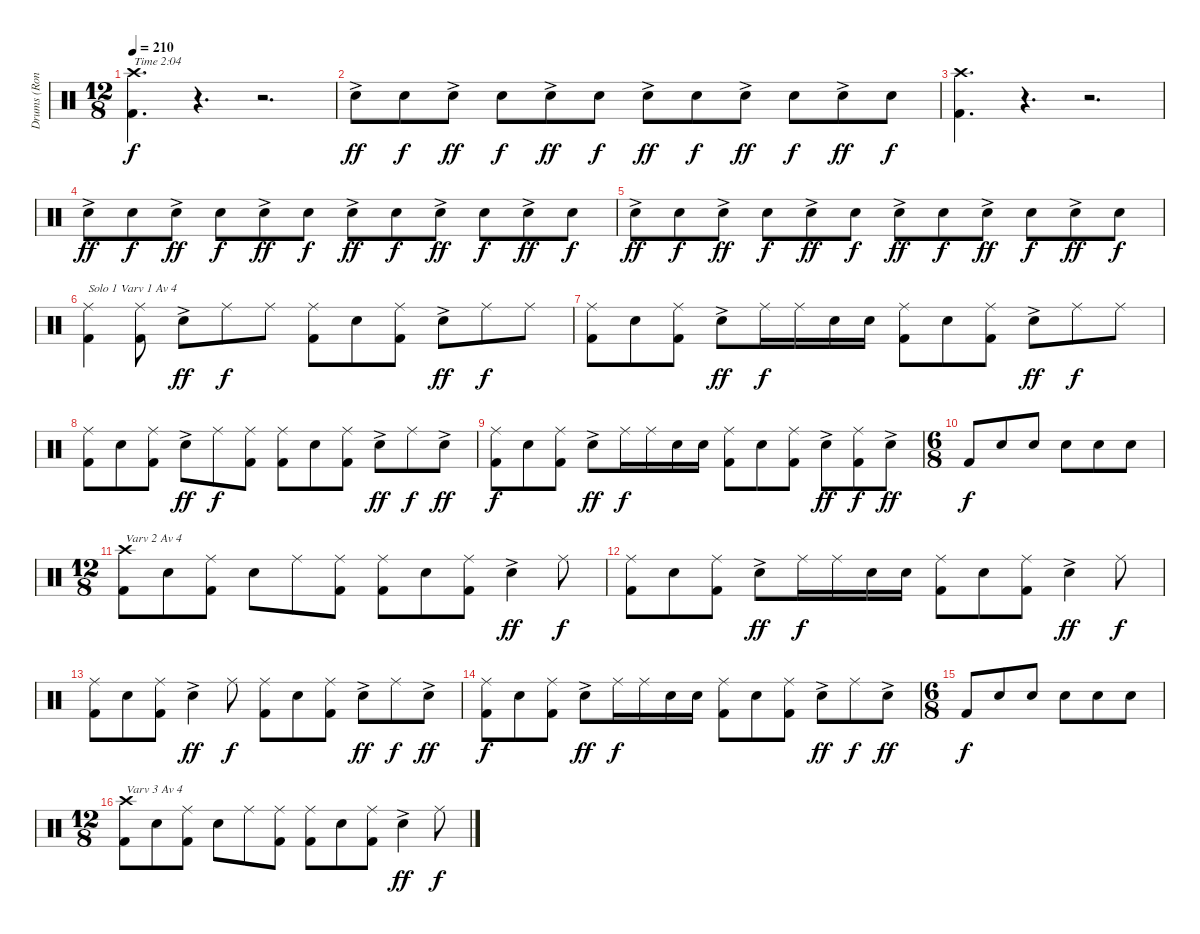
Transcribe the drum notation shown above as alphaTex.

\track ("Drums (Ronny)" "Drums (Ron") {instrument percussion}
\staff {score}
\articulation defaults
\ts (12 8)
\tempo 210
\clef neutral
\ks c
("Crash high (hit)" "Kick (hit) 2").4{d txt "Time 2:04" dy f} r.4{d} r.2{d} |
"Snare (hit) 2"{ac}.8{dy ff} "Snare (hit) 2".8{dy f} "Snare (hit) 2"{ac}.8{dy ff} "Snare (hit) 2".8{dy f} "Snare (hit) 2"{ac}.8{dy ff} "Snare (hit) 2".8{dy f} "Snare (hit) 2"{ac}.8{dy ff} "Snare (hit) 2".8{dy f} "Snare (hit) 2"{ac}.8{dy ff} "Snare (hit) 2".8{dy f} "Snare (hit) 2"{ac}.8{dy ff} "Snare (hit) 2".8{dy f} |
("Crash high (hit)" "Kick (hit) 2").4{d} r.4{d} r.2{d} |
"Snare (hit) 2"{ac}.8{dy ff} "Snare (hit) 2".8{dy f} "Snare (hit) 2"{ac}.8{dy ff} "Snare (hit) 2".8{dy f} "Snare (hit) 2"{ac}.8{dy ff} "Snare (hit) 2".8{dy f} "Snare (hit) 2"{ac}.8{dy ff} "Snare (hit) 2".8{dy f} "Snare (hit) 2"{ac}.8{dy ff} "Snare (hit) 2".8{dy f} "Snare (hit) 2"{ac}.8{dy ff} "Snare (hit) 2".8{dy f} |
"Snare (hit) 2"{ac}.8{dy ff} "Snare (hit) 2".8{dy f} "Snare (hit) 2"{ac}.8{dy ff} "Snare (hit) 2".8{dy f} "Snare (hit) 2"{ac}.8{dy ff} "Snare (hit) 2".8{dy f} "Snare (hit) 2"{ac}.8{dy ff} "Snare (hit) 2".8{dy f} "Snare (hit) 2"{ac}.8{dy ff} "Snare (hit) 2".8{dy f} "Snare (hit) 2"{ac}.8{dy ff} "Snare (hit) 2".8{dy f} |
("Ride (middle)" "Kick (hit) 2").4{txt "Solo 1 Varv 1 Av 4"} ("Ride (middle)" "Kick (hit) 2").8 "Snare (hit) 2"{ac}.8{dy ff} "Ride (middle)".8{dy f} "Ride (middle)".8 ("Ride (middle)" "Kick (hit) 2").8 "Snare (hit) 2".8 ("Ride (middle)" "Kick (hit) 2").8 "Snare (hit) 2"{ac}.8{dy ff} "Ride (middle)".8{dy f} "Ride (middle)".8 |
("Ride (middle)" "Kick (hit) 2").8 "Snare (hit) 2".8 ("Ride (middle)" "Kick (hit) 2").8 "Snare (hit) 2"{ac}.8{dy ff} "Ride (middle)".16{dy f} "Ride (middle)".16 "Snare (hit) 2".16 "Snare (hit) 2".16 ("Ride (middle)" "Kick (hit) 2").8 "Snare (hit) 2".8 ("Ride (middle)" "Kick (hit) 2").8 "Snare (hit) 2"{ac}.8{dy ff} "Ride (middle)".8{dy f} "Ride (middle)".8 |
("Ride (middle)" "Kick (hit) 2").8 "Snare (hit) 2".8 ("Ride (middle)" "Kick (hit) 2").8 "Snare (hit) 2"{ac}.8{dy ff} "Ride (middle)".8{dy f} ("Ride (middle)" "Kick (hit) 2").8 ("Ride (middle)" "Kick (hit) 2").8 "Snare (hit) 2".8 ("Ride (middle)" "Kick (hit) 2").8 "Snare (hit) 2"{ac}.8{dy ff} "Ride (middle)".8{dy f} "Snare (hit) 2"{ac}.8{dy ff} |
("Ride (middle)" "Kick (hit) 2").8{dy f} "Snare (hit) 2".8 ("Ride (middle)" "Kick (hit) 2").8 "Snare (hit) 2"{ac}.8{dy ff} "Ride (middle)".16{dy f} "Ride (middle)".16 "Snare (hit) 2".16 "Snare (hit) 2".16 ("Ride (middle)" "Kick (hit) 2").8 "Snare (hit) 2".8 ("Ride (middle)" "Kick (hit) 2").8 "Snare (hit) 2"{ac}.8{dy ff} ("Ride (middle)" "Kick (hit) 2").8{dy f} "Snare (hit) 2"{ac}.8{dy ff} |
\ts (6 8)
"Kick (hit) 2".8{dy f} "Snare (hit) 2".8 "Snare (hit) 2".8 "Snare (hit) 2".8 "Snare (hit) 2".8 "Snare (hit) 2".8 |
\ts (12 8)
("Crash high (hit)" "Kick (hit) 2").8{txt "Varv 2 Av 4"} "Snare (hit) 2".8 ("Ride (middle)" "Kick (hit) 2").8 "Snare (hit) 2".8 "Ride (middle)".8 ("Ride (middle)" "Kick (hit) 2").8 ("Ride (middle)" "Kick (hit) 2").8 "Snare (hit) 2".8 ("Ride (middle)" "Kick (hit) 2").8 "Snare (hit) 2"{ac}.4{dy ff} "Ride (middle)".8{dy f} |
("Ride (middle)" "Kick (hit) 2").8 "Snare (hit) 2".8 ("Ride (middle)" "Kick (hit) 2").8 "Snare (hit) 2"{ac}.8{dy ff} "Ride (middle)".16{dy f} "Ride (middle)".16 "Snare (hit) 2".16 "Snare (hit) 2".16 ("Ride (middle)" "Kick (hit) 2").8 "Snare (hit) 2".8 ("Ride (middle)" "Kick (hit) 2").8 "Snare (hit) 2"{ac}.4{dy ff} "Ride (middle)".8{dy f} |
("Ride (middle)" "Kick (hit) 2").8 "Snare (hit) 2".8 ("Ride (middle)" "Kick (hit) 2").8 "Snare (hit) 2"{ac}.4{dy ff} "Ride (middle)".8{dy f} ("Ride (middle)" "Kick (hit) 2").8 "Snare (hit) 2".8 ("Ride (middle)" "Kick (hit) 2").8 "Snare (hit) 2"{ac}.8{dy ff} "Ride (middle)".8{dy f} "Snare (hit) 2"{ac}.8{dy ff} |
("Ride (middle)" "Kick (hit) 2").8{dy f} "Snare (hit) 2".8 ("Ride (middle)" "Kick (hit) 2").8 "Snare (hit) 2"{ac}.8{dy ff} "Ride (middle)".16{dy f} "Ride (middle)".16 "Snare (hit) 2".16 "Snare (hit) 2".16 ("Ride (middle)" "Kick (hit) 2").8 "Snare (hit) 2".8 ("Ride (middle)" "Kick (hit) 2").8 "Snare (hit) 2"{ac}.8{dy ff} "Ride (middle)".8{dy f} "Snare (hit) 2"{ac}.8{dy ff} |
\ts (6 8)
"Kick (hit) 2".8{dy f} "Snare (hit) 2".8 "Snare (hit) 2".8 "Snare (hit) 2".8 "Snare (hit) 2".8 "Snare (hit) 2".8 |
\ts (12 8)
("Crash high (hit)" "Kick (hit) 2").8{txt "Varv 3 Av 4"} "Snare (hit) 2".8 ("Ride (middle)" "Kick (hit) 2").8 "Snare (hit) 2".8 "Ride (middle)".8 ("Ride (middle)" "Kick (hit) 2").8 ("Ride (middle)" "Kick (hit) 2").8 "Snare (hit) 2".8 ("Ride (middle)" "Kick (hit) 2").8 "Snare (hit) 2"{ac}.4{dy ff} "Ride (middle)".8{dy f}
